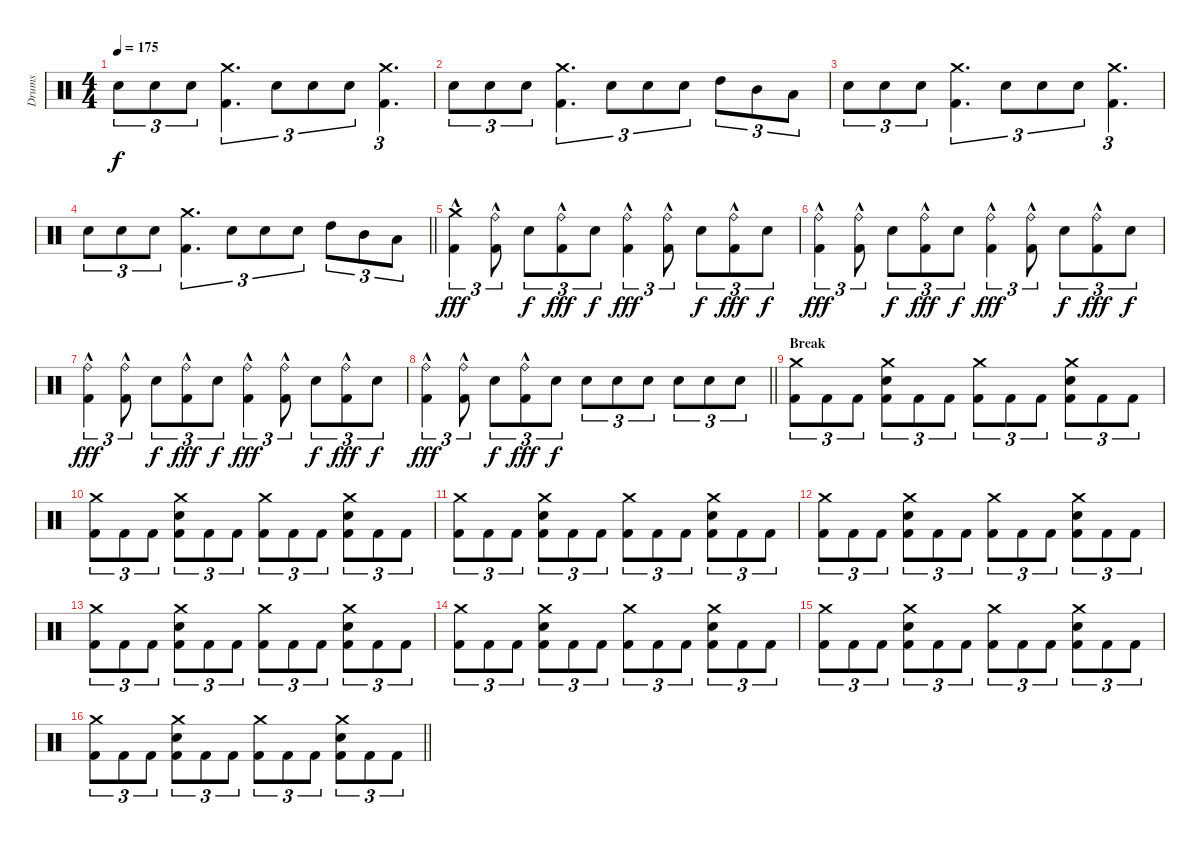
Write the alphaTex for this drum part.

\track ("Drums" "Drums") {instrument percussion}
\staff {score}
\articulation defaults
\ts (4 4)
\section ("" "")
\tempo 175
\clef neutral
\ks c "Snare (hit) 2".8{tu (3 2) dy f} "Snare (hit) 2".8{tu (3 2)} "Snare (hit) 2".8{tu (3 2)}
("Kick (hit) 2" "Crash medium (hit)").4{d tu (3 2)} "Snare (hit) 2".8{tu (3 2)} "Snare (hit) 2".8{tu (3 2)} "Snare (hit) 2".8{tu (3 2)} ("Kick (hit) 2" "Crash medium (hit)").4{d tu (3 2)} |
"Snare (hit) 2".8{tu (3 2)} "Snare (hit) 2".8{tu (3 2)} "Snare (hit) 2".8{tu (3 2)} ("Kick (hit) 2" "Crash medium (hit)").4{d tu (3 2)} "Snare (hit) 2".8{tu (3 2)} "Snare (hit) 2".8{tu (3 2)} "Snare (hit) 2".8{tu (3 2)} "High Tom (hit)".8{tu (3 2)} "Mid Tom (hit)".8{tu (3 2)} "Low Tom (hit)".8{tu (3 2)} |
"Snare (hit) 2".8{tu (3 2)} "Snare (hit) 2".8{tu (3 2)} "Snare (hit) 2".8{tu (3 2)} ("Kick (hit) 2" "Crash medium (hit)").4{d tu (3 2)} "Snare (hit) 2".8{tu (3 2)} "Snare (hit) 2".8{tu (3 2)} "Snare (hit) 2".8{tu (3 2)} ("Kick (hit) 2" "Crash medium (hit)").4{d tu (3 2)} |
\barLineRight lightlight "Snare (hit) 2".8{tu (3 2)} "Snare (hit) 2".8{tu (3 2)} "Snare (hit) 2".8{tu (3 2)}
("Kick (hit) 2" "Crash medium (hit)").4{d tu (3 2)} "Snare (hit) 2".8{tu (3 2)} "Snare (hit) 2".8{tu (3 2)} "Snare (hit) 2".8{tu (3 2)} "High Tom (hit)".8{tu (3 2)} "Mid Tom (hit)".8{tu (3 2)} "Low Tom (hit)".8{tu (3 2)} |
\section ("" "")
("Kick (hit) 2"{hac} "Crash medium (hit)").4{tu (3 2) dy fff} ("Kick (hit) 2"{hac} "Ride (bell)").8{tu (3 2)} "Snare (hit) 2".8{tu (3 2) dy f} ("Kick (hit) 2"{hac} "Ride (bell)").8{tu (3 2) dy fff} "Snare (hit) 2".8{tu (3 2) dy f} ("Kick (hit) 2"{hac} "Ride (bell)").4{tu (3 2) dy fff} ("Kick (hit) 2"{hac} "Ride (bell)").8{tu (3 2)} "Snare (hit) 2".8{tu (3 2) dy f} ("Kick (hit) 2"{hac} "Ride (bell)").8{tu (3 2) dy fff} "Snare (hit) 2".8{tu (3 2) dy f} |
("Kick (hit) 2"{hac} "Ride (bell)").4{tu (3 2) dy fff} ("Kick (hit) 2"{hac} "Ride (bell)").8{tu (3 2)} "Snare (hit) 2".8{tu (3 2) dy f} ("Kick (hit) 2"{hac} "Ride (bell)").8{tu (3 2) dy fff} "Snare (hit) 2".8{tu (3 2) dy f} ("Kick (hit) 2"{hac} "Ride (bell)").4{tu (3 2) dy fff} ("Kick (hit) 2"{hac} "Ride (bell)").8{tu (3 2)} "Snare (hit) 2".8{tu (3 2) dy f} ("Kick (hit) 2"{hac} "Ride (bell)").8{tu (3 2) dy fff} "Snare (hit) 2".8{tu (3 2) dy f} |
("Kick (hit) 2"{hac} "Ride (bell)").4{tu (3 2) dy fff} ("Kick (hit) 2"{hac} "Ride (bell)").8{tu (3 2)} "Snare (hit) 2".8{tu (3 2) dy f} ("Kick (hit) 2"{hac} "Ride (bell)").8{tu (3 2) dy fff} "Snare (hit) 2".8{tu (3 2) dy f} ("Kick (hit) 2"{hac} "Ride (bell)").4{tu (3 2) dy fff} ("Kick (hit) 2"{hac} "Ride (bell)").8{tu (3 2)} "Snare (hit) 2".8{tu (3 2) dy f} ("Kick (hit) 2"{hac} "Ride (bell)").8{tu (3 2) dy fff} "Snare (hit) 2".8{tu (3 2) dy f} |
\barLineRight lightlight
("Kick (hit) 2"{hac} "Ride (bell)").4{tu (3 2) dy fff} ("Kick (hit) 2"{hac} "Ride (bell)").8{tu (3 2)} "Snare (hit) 2".8{tu (3 2) dy f} ("Kick (hit) 2"{hac} "Ride (bell)").8{tu (3 2) dy fff} "Snare (hit) 2".8{tu (3 2) dy f} "Snare (hit) 2".8{tu (3 2)} "Snare (hit) 2".8{tu (3 2)} "Snare (hit) 2".8{tu (3 2)} "Snare (hit) 2".8{tu (3 2)} "Snare (hit) 2".8{tu (3 2)} "Snare (hit) 2".8{tu (3 2)} |
\section ("" "Break")
("Kick (hit) 2" "Crash medium (hit)").8{tu (3 2)} "Kick (hit) 2".8{tu (3 2)} "Kick (hit) 2".8{tu (3 2)} ("Kick (hit) 2" "Snare (hit) 2" "Crash medium (hit)").8{tu (3 2)} "Kick (hit) 2".8{tu (3 2)} "Kick (hit) 2".8{tu (3 2)} ("Kick (hit) 2" "Crash medium (hit)").8{tu (3 2)} "Kick (hit) 2".8{tu (3 2)} "Kick (hit) 2".8{tu (3 2)} ("Kick (hit) 2" "Snare (hit) 2" "Crash medium (hit)").8{tu (3 2)} "Kick (hit) 2".8{tu (3 2)} "Kick (hit) 2".8{tu (3 2)} |
("Kick (hit) 2" "Crash medium (hit)").8{tu (3 2)} "Kick (hit) 2".8{tu (3 2)} "Kick (hit) 2".8{tu (3 2)} ("Kick (hit) 2" "Snare (hit) 2" "Crash medium (hit)").8{tu (3 2)} "Kick (hit) 2".8{tu (3 2)} "Kick (hit) 2".8{tu (3 2)} ("Kick (hit) 2" "Crash medium (hit)").8{tu (3 2)} "Kick (hit) 2".8{tu (3 2)} "Kick (hit) 2".8{tu (3 2)} ("Kick (hit) 2" "Snare (hit) 2" "Crash medium (hit)").8{tu (3 2)} "Kick (hit) 2".8{tu (3 2)} "Kick (hit) 2".8{tu (3 2)} |
("Kick (hit) 2" "Crash medium (hit)").8{tu (3 2)} "Kick (hit) 2".8{tu (3 2)} "Kick (hit) 2".8{tu (3 2)} ("Kick (hit) 2" "Snare (hit) 2" "Crash medium (hit)").8{tu (3 2)} "Kick (hit) 2".8{tu (3 2)} "Kick (hit) 2".8{tu (3 2)} ("Kick (hit) 2" "Crash medium (hit)").8{tu (3 2)} "Kick (hit) 2".8{tu (3 2)} "Kick (hit) 2".8{tu (3 2)} ("Kick (hit) 2" "Snare (hit) 2" "Crash medium (hit)").8{tu (3 2)} "Kick (hit) 2".8{tu (3 2)} "Kick (hit) 2".8{tu (3 2)} |
("Kick (hit) 2" "Crash medium (hit)").8{tu (3 2)} "Kick (hit) 2".8{tu (3 2)} "Kick (hit) 2".8{tu (3 2)} ("Kick (hit) 2" "Snare (hit) 2" "Crash medium (hit)").8{tu (3 2)} "Kick (hit) 2".8{tu (3 2)} "Kick (hit) 2".8{tu (3 2)} ("Kick (hit) 2" "Crash medium (hit)").8{tu (3 2)} "Kick (hit) 2".8{tu (3 2)} "Kick (hit) 2".8{tu (3 2)} ("Kick (hit) 2" "Snare (hit) 2" "Crash medium (hit)").8{tu (3 2)} "Kick (hit) 2".8{tu (3 2)} "Kick (hit) 2".8{tu (3 2)} |
("Kick (hit) 2" "Crash medium (hit)").8{tu (3 2)} "Kick (hit) 2".8{tu (3 2)} "Kick (hit) 2".8{tu (3 2)} ("Kick (hit) 2" "Snare (hit) 2" "Crash medium (hit)").8{tu (3 2)} "Kick (hit) 2".8{tu (3 2)} "Kick (hit) 2".8{tu (3 2)} ("Kick (hit) 2" "Crash medium (hit)").8{tu (3 2)} "Kick (hit) 2".8{tu (3 2)} "Kick (hit) 2".8{tu (3 2)} ("Kick (hit) 2" "Snare (hit) 2" "Crash medium (hit)").8{tu (3 2)} "Kick (hit) 2".8{tu (3 2)} "Kick (hit) 2".8{tu (3 2)} |
("Kick (hit) 2" "Crash medium (hit)").8{tu (3 2)} "Kick (hit) 2".8{tu (3 2)} "Kick (hit) 2".8{tu (3 2)} ("Kick (hit) 2" "Snare (hit) 2" "Crash medium (hit)").8{tu (3 2)} "Kick (hit) 2".8{tu (3 2)} "Kick (hit) 2".8{tu (3 2)} ("Kick (hit) 2" "Crash medium (hit)").8{tu (3 2)} "Kick (hit) 2".8{tu (3 2)} "Kick (hit) 2".8{tu (3 2)} ("Kick (hit) 2" "Snare (hit) 2" "Crash medium (hit)").8{tu (3 2)} "Kick (hit) 2".8{tu (3 2)} "Kick (hit) 2".8{tu (3 2)} |
("Kick (hit) 2" "Crash medium (hit)").8{tu (3 2)} "Kick (hit) 2".8{tu (3 2)} "Kick (hit) 2".8{tu (3 2)} ("Kick (hit) 2" "Snare (hit) 2" "Crash medium (hit)").8{tu (3 2)} "Kick (hit) 2".8{tu (3 2)} "Kick (hit) 2".8{tu (3 2)} ("Kick (hit) 2" "Crash medium (hit)").8{tu (3 2)} "Kick (hit) 2".8{tu (3 2)} "Kick (hit) 2".8{tu (3 2)} ("Kick (hit) 2" "Snare (hit) 2" "Crash medium (hit)").8{tu (3 2)} "Kick (hit) 2".8{tu (3 2)} "Kick (hit) 2".8{tu (3 2)} |
\barLineRight lightlight
("Kick (hit) 2" "Crash medium (hit)").8{tu (3 2)} "Kick (hit) 2".8{tu (3 2)} "Kick (hit) 2".8{tu (3 2)} ("Kick (hit) 2" "Snare (hit) 2" "Crash medium (hit)").8{tu (3 2)} "Kick (hit) 2".8{tu (3 2)} "Kick (hit) 2".8{tu (3 2)} ("Kick (hit) 2" "Crash medium (hit)").8{tu (3 2)} "Kick (hit) 2".8{tu (3 2)} "Kick (hit) 2".8{tu (3 2)} ("Kick (hit) 2" "Snare (hit) 2" "Crash medium (hit)").8{tu (3 2)} "Kick (hit) 2".8{tu (3 2)} "Kick (hit) 2".8{tu (3 2)}
